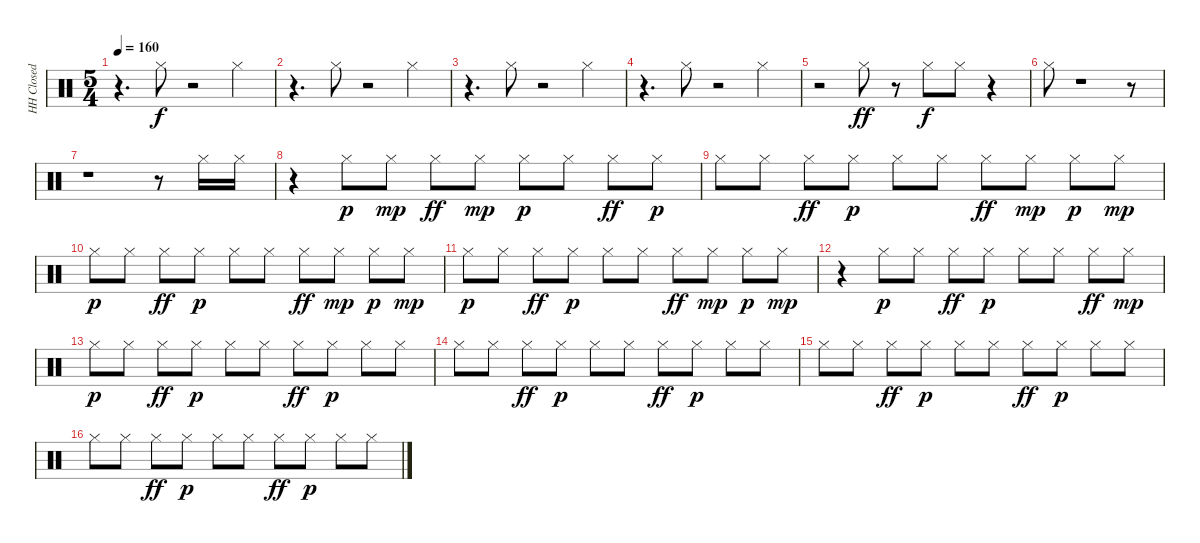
\track ("HH Closed" "HH Closed") {instrument percussion}
\staff {score}
\articulation defaults
\ts (5 4)
\tempo 160
\clef neutral
\ks c
r.4{d dy f} "Hi-Hat (closed)".8 r.2 "Hi-Hat (closed)".4 |
r.4{d} "Hi-Hat (closed)".8 r.2 "Hi-Hat (closed)".4 |
r.4{d} "Hi-Hat (closed)".8 r.2 "Hi-Hat (closed)".4 |
r.4{d} "Hi-Hat (closed)".8 r.2 "Hi-Hat (closed)".4 |
r.2 "Hi-Hat (closed)".8{dy ff} r.8 "Hi-Hat (closed)".8{dy f} "Hi-Hat (closed)".8 r.4 |
"Hi-Hat (closed)".8 r.1 r.8 |
r.1 r.8 "Hi-Hat (closed)".16 "Hi-Hat (closed)".16 |
r.4 "Hi-Hat (closed)".8{dy p} "Hi-Hat (closed)".8{dy mp} "Hi-Hat (closed)".8{dy ff} "Hi-Hat (closed)".8{dy mp} "Hi-Hat (closed)".8{dy p} "Hi-Hat (closed)".8 "Hi-Hat (closed)".8{dy ff} "Hi-Hat (closed)".8{dy p} |
"Hi-Hat (closed)".8 "Hi-Hat (closed)".8 "Hi-Hat (closed)".8{dy ff} "Hi-Hat (closed)".8{dy p} "Hi-Hat (closed)".8 "Hi-Hat (closed)".8 "Hi-Hat (closed)".8{dy ff} "Hi-Hat (closed)".8{dy mp} "Hi-Hat (closed)".8{dy p} "Hi-Hat (closed)".8{dy mp} |
"Hi-Hat (closed)".8{dy p} "Hi-Hat (closed)".8 "Hi-Hat (closed)".8{dy ff} "Hi-Hat (closed)".8{dy p} "Hi-Hat (closed)".8 "Hi-Hat (closed)".8 "Hi-Hat (closed)".8{dy ff} "Hi-Hat (closed)".8{dy mp} "Hi-Hat (closed)".8{dy p} "Hi-Hat (closed)".8{dy mp} |
"Hi-Hat (closed)".8{dy p} "Hi-Hat (closed)".8 "Hi-Hat (closed)".8{dy ff} "Hi-Hat (closed)".8{dy p} "Hi-Hat (closed)".8 "Hi-Hat (closed)".8 "Hi-Hat (closed)".8{dy ff} "Hi-Hat (closed)".8{dy mp} "Hi-Hat (closed)".8{dy p} "Hi-Hat (closed)".8{dy mp} |
r.4 "Hi-Hat (closed)".8{dy p} "Hi-Hat (closed)".8 "Hi-Hat (closed)".8{dy ff} "Hi-Hat (closed)".8{dy p} "Hi-Hat (closed)".8 "Hi-Hat (closed)".8 "Hi-Hat (closed)".8{dy ff} "Hi-Hat (closed)".8{dy mp} |
"Hi-Hat (closed)".8{dy p} "Hi-Hat (closed)".8 "Hi-Hat (closed)".8{dy ff} "Hi-Hat (closed)".8{dy p} "Hi-Hat (closed)".8 "Hi-Hat (closed)".8 "Hi-Hat (closed)".8{dy ff} "Hi-Hat (closed)".8{dy p} "Hi-Hat (closed)".8 "Hi-Hat (closed)".8 |
"Hi-Hat (closed)".8 "Hi-Hat (closed)".8 "Hi-Hat (closed)".8{dy ff} "Hi-Hat (closed)".8{dy p} "Hi-Hat (closed)".8 "Hi-Hat (closed)".8 "Hi-Hat (closed)".8{dy ff} "Hi-Hat (closed)".8{dy p} "Hi-Hat (closed)".8 "Hi-Hat (closed)".8 |
"Hi-Hat (closed)".8 "Hi-Hat (closed)".8 "Hi-Hat (closed)".8{dy ff} "Hi-Hat (closed)".8{dy p} "Hi-Hat (closed)".8 "Hi-Hat (closed)".8 "Hi-Hat (closed)".8{dy ff} "Hi-Hat (closed)".8{dy p} "Hi-Hat (closed)".8 "Hi-Hat (closed)".8 |
"Hi-Hat (closed)".8 "Hi-Hat (closed)".8 "Hi-Hat (closed)".8{dy ff} "Hi-Hat (closed)".8{dy p} "Hi-Hat (closed)".8 "Hi-Hat (closed)".8 "Hi-Hat (closed)".8{dy ff} "Hi-Hat (closed)".8{dy p} "Hi-Hat (closed)".8 "Hi-Hat (closed)".8
